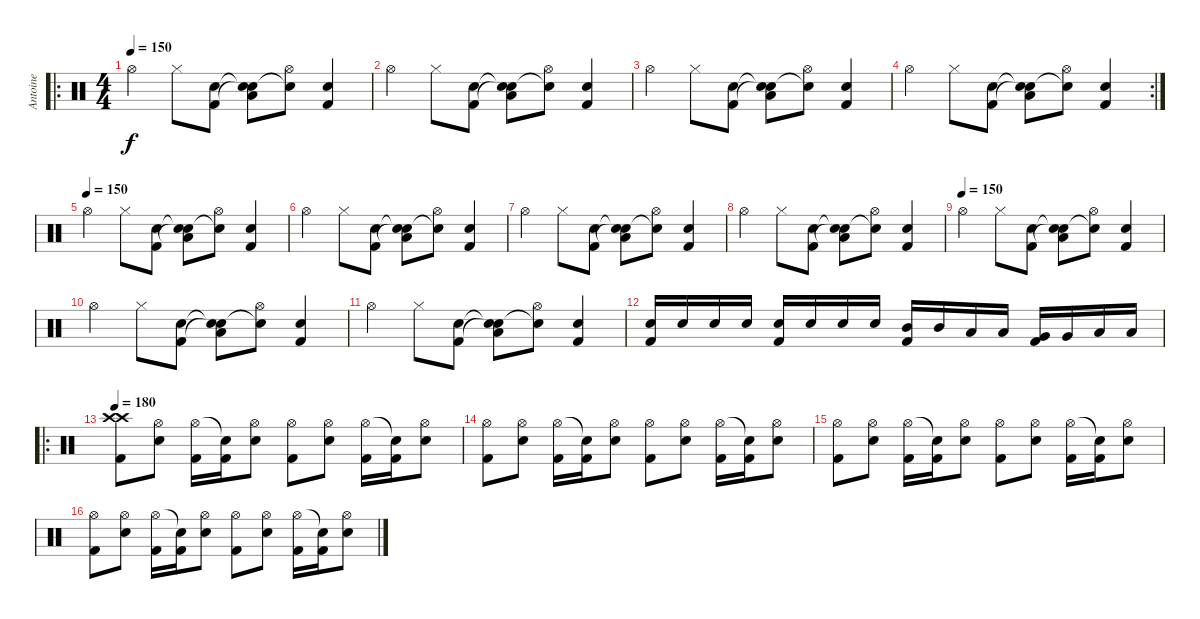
\track ("Antoine" "Antoine") {instrument percussion}
\staff {score}
\articulation defaults
\ro
\ts (4 4)
\tempo 150
\clef neutral
\ks c "Hi-Hat (open)".4{dy f} "Hi-Hat (closed)".8
("Kick (hit) 2" "Electric Snare (hit)").8 ("Snare (hit)"{t} "Snare (hit)"{t} "Low Tom (hit)").8 ("Snare (hit)"{t} "Hi-Hat (open)").8 ("Kick (hit) 2" "Electric Snare (hit)").4 |
"Hi-Hat (open)".4 "Hi-Hat (closed)".8 ("Kick (hit) 2" "Electric Snare (hit)").8 ("Snare (hit)"{t} "Snare (hit)"{t} "Low Tom (hit)").8 ("Snare (hit)"{t} "Hi-Hat (open)").8 ("Kick (hit) 2" "Electric Snare (hit)").4 |
"Hi-Hat (open)".4 "Hi-Hat (closed)".8 ("Kick (hit) 2" "Electric Snare (hit)").8 ("Snare (hit)"{t} "Snare (hit)"{t} "Low Tom (hit)").8 ("Snare (hit)"{t} "Hi-Hat (open)").8 ("Kick (hit) 2" "Electric Snare (hit)").4 |
\rc 2 "Hi-Hat (open)".4 "Hi-Hat (closed)".8
("Kick (hit) 2" "Electric Snare (hit)").8 ("Snare (hit)"{t} "Snare (hit)"{t} "Low Tom (hit)").8 ("Snare (hit)"{t} "Hi-Hat (open)").8 ("Kick (hit) 2" "Electric Snare (hit)").4 |
\tempo (150)
"Hi-Hat (open)".4 "Hi-Hat (closed)".8 ("Kick (hit) 2" "Electric Snare (hit)").8 ("Snare (hit)"{t} "Snare (hit)"{t} "Low Tom (hit)").8 ("Snare (hit)"{t} "Hi-Hat (open)").8 ("Kick (hit) 2" "Electric Snare (hit)").4 |
"Hi-Hat (open)".4 "Hi-Hat (closed)".8 ("Kick (hit) 2" "Electric Snare (hit)").8 ("Snare (hit)"{t} "Snare (hit)"{t} "Low Tom (hit)").8 ("Snare (hit)"{t} "Hi-Hat (open)").8 ("Kick (hit) 2" "Electric Snare (hit)").4 |
"Hi-Hat (open)".4 "Hi-Hat (closed)".8 ("Kick (hit) 2" "Electric Snare (hit)").8 ("Snare (hit)"{t} "Snare (hit)"{t} "Low Tom (hit)").8 ("Snare (hit)"{t} "Hi-Hat (open)").8 ("Kick (hit) 2" "Electric Snare (hit)").4 |
"Hi-Hat (open)".4 "Hi-Hat (closed)".8 ("Kick (hit) 2" "Electric Snare (hit)").8 ("Snare (hit)"{t} "Snare (hit)"{t} "Low Tom (hit)").8 ("Snare (hit)"{t} "Hi-Hat (open)").8 ("Kick (hit) 2" "Electric Snare (hit)").4 |
\tempo (150)
"Hi-Hat (open)".4 "Hi-Hat (closed)".8 ("Kick (hit) 2" "Electric Snare (hit)").8 ("Snare (hit)"{t} "Snare (hit)"{t} "Low Tom (hit)").8 ("Snare (hit)"{t} "Hi-Hat (open)").8 ("Kick (hit) 2" "Electric Snare (hit)").4 |
"Hi-Hat (open)".4 "Hi-Hat (closed)".8 ("Kick (hit) 2" "Electric Snare (hit)").8 ("Snare (hit)"{t} "Snare (hit)"{t} "Low Tom (hit)").8 ("Snare (hit)"{t} "Hi-Hat (open)").8 ("Kick (hit) 2" "Electric Snare (hit)").4 |
"Hi-Hat (open)".4 "Hi-Hat (closed)".8 ("Kick (hit) 2" "Electric Snare (hit)").8 ("Snare (hit)"{t} "Snare (hit)"{t} "Low Tom (hit)").8 ("Snare (hit)"{t} "Hi-Hat (open)").8 ("Kick (hit) 2" "Electric Snare (hit)").4 |
("Electric Snare (hit)" "Kick (hit) 2").16 "Electric Snare (hit)".16 "Electric Snare (hit)".16 "Electric Snare (hit)".16 ("Electric Snare (hit)" "Kick (hit) 2").16 "Electric Snare (hit)".16 "Electric Snare (hit)".16 "Electric Snare (hit)".16 ("Mid Tom (hit)" "Kick (hit) 2").16 "Mid Tom (hit)".16 "Low Tom (hit)".16 "Low Tom (hit)".16 ("Very Low Tom (hit)" "Kick (hit) 2").16 "Very Low Tom (hit)".16 "Low Floor Tom (hit)".16 "Low Floor Tom (hit)".16 |
\ro
\tempo 180
("Crash high (hit)" "Crash high (hit)" "Kick (hit) 2").8 ("Hi-Hat (open)" "Snare (hit) 2").8 ("Hi-Hat (open)" "Kick (hit) 2").16 ("Snare (hit)"{t} "Kick (hit) 2").16 ("Hi-Hat (open)" "Snare (hit) 2").8 ("Hi-Hat (open)" "Kick (hit) 2").8 ("Hi-Hat (open)" "Snare (hit) 2").8 ("Hi-Hat (open)" "Kick (hit) 2").16 ("Snare (hit)"{t} "Kick (hit) 2").16 ("Hi-Hat (open)" "Snare (hit) 2").8 |
("Hi-Hat (open)" "Kick (hit) 2").8 ("Hi-Hat (open)" "Snare (hit) 2").8 ("Hi-Hat (open)" "Kick (hit) 2").16 ("Snare (hit)"{t} "Kick (hit) 2").16 ("Hi-Hat (open)" "Snare (hit) 2").8 ("Hi-Hat (open)" "Kick (hit) 2").8 ("Hi-Hat (open)" "Snare (hit) 2").8 ("Hi-Hat (open)" "Kick (hit) 2").16 ("Snare (hit)"{t} "Kick (hit) 2").16 ("Hi-Hat (open)" "Snare (hit) 2").8 |
("Hi-Hat (open)" "Kick (hit) 2").8 ("Hi-Hat (open)" "Snare (hit) 2").8 ("Hi-Hat (open)" "Kick (hit) 2").16 ("Snare (hit)"{t} "Kick (hit) 2").16 ("Hi-Hat (open)" "Snare (hit) 2").8 ("Hi-Hat (open)" "Kick (hit) 2").8 ("Hi-Hat (open)" "Snare (hit) 2").8 ("Hi-Hat (open)" "Kick (hit) 2").16 ("Snare (hit)"{t} "Kick (hit) 2").16 ("Hi-Hat (open)" "Snare (hit) 2").8 |
("Hi-Hat (open)" "Kick (hit) 2").8 ("Hi-Hat (open)" "Snare (hit) 2").8 ("Hi-Hat (open)" "Kick (hit) 2").16 ("Snare (hit)"{t} "Kick (hit) 2").16 ("Hi-Hat (open)" "Snare (hit) 2").8 ("Hi-Hat (open)" "Kick (hit) 2").8 ("Hi-Hat (open)" "Snare (hit) 2").8 ("Hi-Hat (open)" "Kick (hit) 2").16 ("Snare (hit)"{t} "Kick (hit) 2").16 ("Hi-Hat (open)" "Snare (hit) 2").8
